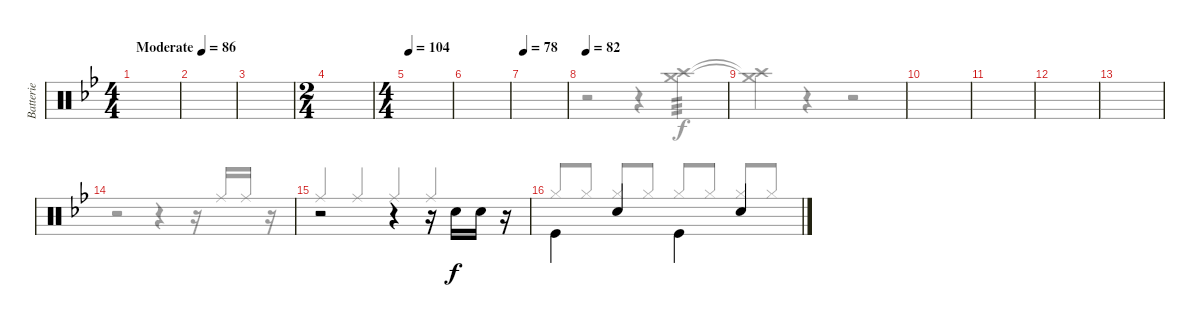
\track ("Batterie" "Batterie") {instrument percussion}
\staff {score}
\articulation defaults
\voice
\ts (4 4)
\tempo (86 "Moderate")
\clef neutral
\ks bb
|
|
|
\ts (2 4)
|
\ts (4 4)
\tempo 104
|
|
\tempo 78
|
\tempo 82
|
|
|
|
|
|
|
r.2 r.4 r.16 "Snare (hit) 2".16{beam Down} "Snare (hit) 2".16{beam Down} r.16 |
"Kick (hit)".4{beam Down} "Snare (hit) 2".4 "Kick (hit)".4{beam Down} "Snare (hit) 2".4
\voice
\clef neutral
\ottava regular
\simile none
\ks bb
|
|
|
|
|
|
|
r.2 r.4 ("Crash medium (hit)" "Crash high (hit)").4{tp 3} |
("Crash medium (hit)"{t} "Crash high (hit)"{t}).4 r.4 r.2 |
|
|
|
|
r.2 r.4 r.16 "Ride (middle)".16{beam Up} "Ride (middle)".16{beam Up} r.16 |
"Ride (middle)".4{beam Up} "Ride (middle)".4{beam Up} "Ride (middle)".4{beam Up} "Ride (middle)".4{beam Up} |
"Hi-Hat (closed)".8{beam Up} "Hi-Hat (closed)".8{beam Up} "Hi-Hat (closed)".8{beam Up} "Hi-Hat (closed)".8{beam Up} "Hi-Hat (closed)".8{beam Up} "Hi-Hat (closed)".8{beam Up} "Hi-Hat (closed)".8{beam Up} "Hi-Hat (closed)".8{beam Up}
